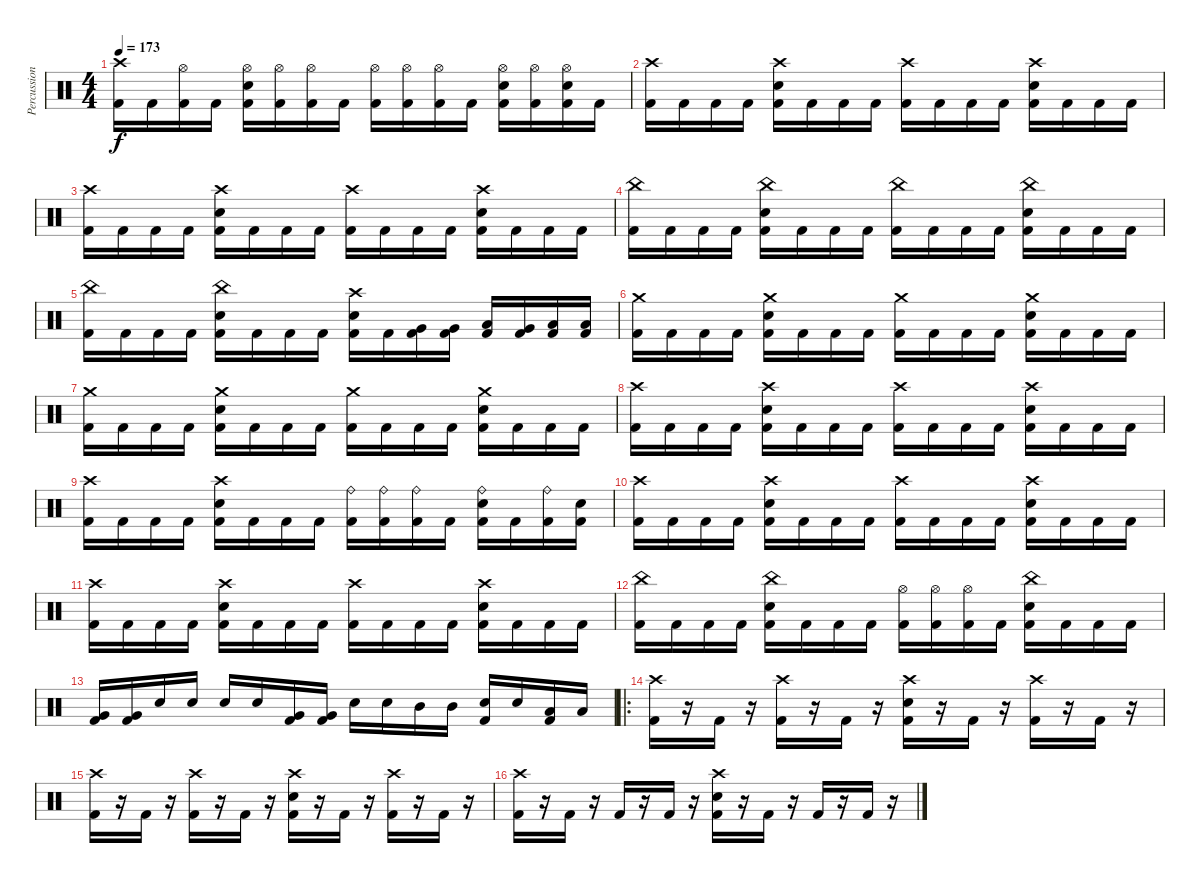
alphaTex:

\track ("Percussion" "Percussion") {instrument percussion}
\staff {score}
\articulation defaults
\ts (4 4)
\tempo 173
\clef neutral
\ks c
("Crash high (hit)" "Kick (hit) 2").16{dy f} "Kick (hit) 2".16 ("Hi-Hat (open)" "Kick (hit) 2").16 "Kick (hit) 2".16 ("Hi-Hat (open)" "Electric Snare (hit)" "Kick (hit) 2").16 ("Hi-Hat (open)" "Kick (hit) 2").16 ("Hi-Hat (open)" "Kick (hit) 2").16 "Kick (hit) 2".16 ("Hi-Hat (open)" "Kick (hit) 2").16 ("Hi-Hat (open)" "Kick (hit) 2").16 ("Hi-Hat (open)" "Kick (hit) 2").16 "Kick (hit) 2".16 ("Hi-Hat (open)" "Electric Snare (hit)" "Kick (hit) 2").16 ("Hi-Hat (open)" "Kick (hit) 2").16 ("Hi-Hat (open)" "Electric Snare (hit)" "Kick (hit) 2").16 "Kick (hit) 2".16 |
("Crash high (hit)" "Kick (hit) 2").16 "Kick (hit) 2".16 "Kick (hit) 2".16 "Kick (hit) 2".16 ("Crash high (hit)" "Electric Snare (hit)" "Kick (hit) 2").16 "Kick (hit) 2".16 "Kick (hit) 2".16 "Kick (hit) 2".16 ("Crash high (hit)" "Kick (hit) 2").16 "Kick (hit) 2".16 "Kick (hit) 2".16 "Kick (hit) 2".16 ("Crash high (hit)" "Electric Snare (hit)" "Kick (hit) 2").16 "Kick (hit) 2".16 "Kick (hit) 2".16 "Kick (hit) 2".16 |
("Crash high (hit)" "Kick (hit) 2").16 "Kick (hit) 2".16 "Kick (hit) 2".16 "Kick (hit) 2".16 ("Crash high (hit)" "Electric Snare (hit)" "Kick (hit) 2").16 "Kick (hit) 2".16 "Kick (hit) 2".16 "Kick (hit) 2".16 ("Crash high (hit)" "Kick (hit) 2").16 "Kick (hit) 2".16 "Kick (hit) 2".16 "Kick (hit) 2".16 ("Crash high (hit)" "Electric Snare (hit)" "Kick (hit) 2").16 "Kick (hit) 2".16 "Kick (hit) 2".16 "Kick (hit) 2".16 |
("China (hit)" "Kick (hit) 2").16 "Kick (hit) 2".16 "Kick (hit) 2".16 "Kick (hit) 2".16 ("China (hit)" "Electric Snare (hit)" "Kick (hit) 2").16 "Kick (hit) 2".16 "Kick (hit) 2".16 "Kick (hit) 2".16 ("China (hit)" "Kick (hit) 2").16 "Kick (hit) 2".16 "Kick (hit) 2".16 "Kick (hit) 2".16 ("China (hit)" "Electric Snare (hit)" "Kick (hit) 2").16 "Kick (hit) 2".16 "Kick (hit) 2".16 "Kick (hit) 2".16 |
("China (hit)" "Kick (hit) 2").16 "Kick (hit) 2".16 "Kick (hit) 2".16 "Kick (hit) 2".16 ("China (hit)" "Electric Snare (hit)" "Kick (hit) 2").16 "Kick (hit) 2".16 "Kick (hit) 2".16 "Kick (hit) 2".16 ("Crash high (hit)" "Electric Snare (hit)" "Kick (hit) 2").16 "Kick (hit) 2".16 ("Very Low Tom (hit)" "Kick (hit) 2").16 ("Very Low Tom (hit)" "Kick (hit) 2").16 ("Low Floor Tom (hit)" "Kick (hit) 2").16 ("Very Low Tom (hit)" "Kick (hit) 2").16 ("Low Floor Tom (hit)" "Kick (hit) 2").16 ("Low Floor Tom (hit)" "Kick (hit) 2").16 |
("Crash medium (hit)" "Kick (hit) 2").16 "Kick (hit) 2".16 "Kick (hit) 2".16 "Kick (hit) 2".16 ("Crash medium (hit)" "Electric Snare (hit)" "Kick (hit) 2").16 "Kick (hit) 2".16 "Kick (hit) 2".16 "Kick (hit) 2".16 ("Crash medium (hit)" "Kick (hit) 2").16 "Kick (hit) 2".16 "Kick (hit) 2".16 "Kick (hit) 2".16 ("Crash medium (hit)" "Electric Snare (hit)" "Kick (hit) 2").16 "Kick (hit) 2".16 "Kick (hit) 2".16 "Kick (hit) 2".16 |
("Crash medium (hit)" "Kick (hit) 2").16 "Kick (hit) 2".16 "Kick (hit) 2".16 "Kick (hit) 2".16 ("Crash medium (hit)" "Electric Snare (hit)" "Kick (hit) 2").16 "Kick (hit) 2".16 "Kick (hit) 2".16 "Kick (hit) 2".16 ("Crash medium (hit)" "Kick (hit) 2").16 "Kick (hit) 2".16 "Kick (hit) 2".16 "Kick (hit) 2".16 ("Crash medium (hit)" "Electric Snare (hit)" "Kick (hit) 2").16 "Kick (hit) 2".16 "Kick (hit) 2".16 "Kick (hit) 2".16 |
("Crash high (hit)" "Kick (hit) 2").16 "Kick (hit) 2".16 "Kick (hit) 2".16 "Kick (hit) 2".16 ("Crash high (hit)" "Electric Snare (hit)" "Kick (hit) 2").16 "Kick (hit) 2".16 "Kick (hit) 2".16 "Kick (hit) 2".16 ("Crash high (hit)" "Kick (hit) 2").16 "Kick (hit) 2".16 "Kick (hit) 2".16 "Kick (hit) 2".16 ("Crash high (hit)" "Electric Snare (hit)" "Kick (hit) 2").16 "Kick (hit) 2".16 "Kick (hit) 2".16 "Kick (hit) 2".16 |
("Crash high (hit)" "Kick (hit) 2").16 "Kick (hit) 2".16 "Kick (hit) 2".16 "Kick (hit) 2".16 ("Crash high (hit)" "Electric Snare (hit)" "Kick (hit) 2").16 "Kick (hit) 2".16 "Kick (hit) 2".16 "Kick (hit) 2".16 ("Ride (bell)" "Kick (hit) 2").16 ("Ride (bell)" "Kick (hit) 2").16 ("Ride (bell)" "Kick (hit) 2").16 "Kick (hit) 2".16 ("Ride (bell)" "Electric Snare (hit)" "Kick (hit) 2").16 "Kick (hit) 2".16 ("Ride (bell)" "Kick (hit) 2").16 ("Electric Snare (hit)" "Kick (hit) 2").16 |
("Crash high (hit)" "Kick (hit) 2").16 "Kick (hit) 2".16 "Kick (hit) 2".16 "Kick (hit) 2".16 ("Crash high (hit)" "Electric Snare (hit)" "Kick (hit) 2").16 "Kick (hit) 2".16 "Kick (hit) 2".16 "Kick (hit) 2".16 ("Crash high (hit)" "Kick (hit) 2").16 "Kick (hit) 2".16 "Kick (hit) 2".16 "Kick (hit) 2".16 ("Crash high (hit)" "Electric Snare (hit)" "Kick (hit) 2").16 "Kick (hit) 2".16 "Kick (hit) 2".16 "Kick (hit) 2".16 |
("Crash high (hit)" "Kick (hit) 2").16 "Kick (hit) 2".16 "Kick (hit) 2".16 "Kick (hit) 2".16 ("Crash high (hit)" "Electric Snare (hit)" "Kick (hit) 2").16 "Kick (hit) 2".16 "Kick (hit) 2".16 "Kick (hit) 2".16 ("Crash high (hit)" "Kick (hit) 2").16 "Kick (hit) 2".16 "Kick (hit) 2".16 "Kick (hit) 2".16 ("Crash high (hit)" "Electric Snare (hit)" "Kick (hit) 2").16 "Kick (hit) 2".16 "Kick (hit) 2".16 "Kick (hit) 2".16 |
("China (hit)" "Kick (hit) 2").16 "Kick (hit) 2".16 "Kick (hit) 2".16 "Kick (hit) 2".16 ("China (hit)" "Electric Snare (hit)" "Kick (hit) 2").16 "Kick (hit) 2".16 "Kick (hit) 2".16 "Kick (hit) 2".16 ("Hi-Hat (open)" "Kick (hit) 2").16 ("Hi-Hat (open)" "Kick (hit) 2").16 ("Hi-Hat (open)" "Kick (hit) 2").16 "Kick (hit) 2".16 ("China (hit)" "Electric Snare (hit)" "Kick (hit) 2").16 "Kick (hit) 2".16 "Kick (hit) 2".16 "Kick (hit) 2".16 |
("Very Low Tom (hit)" "Kick (hit) 2").16 ("Very Low Tom (hit)" "Kick (hit) 2").16 "Electric Snare (hit)".16 "Electric Snare (hit)".16 "Electric Snare (hit)".16 "Electric Snare (hit)".16 ("Very Low Tom (hit)" "Kick (hit) 2").16 ("Very Low Tom (hit)" "Kick (hit) 2").16 "Electric Snare (hit)".16 "Electric Snare (hit)".16 "Mid Tom (hit)".16 "Mid Tom (hit)".16 ("Electric Snare (hit)" "Kick (hit) 2").16 "Electric Snare (hit)".16 ("Low Floor Tom (hit)" "Kick (hit) 2").16 "Low Floor Tom (hit)".16 |
\ro
("Crash high (hit)" "Kick (hit) 2").16 r.16 "Kick (hit) 2".16 r.16 ("Crash high (hit)" "Kick (hit) 2").16 r.16 "Kick (hit) 2".16 r.16 ("Crash high (hit)" "Electric Snare (hit)" "Kick (hit) 2").16 r.16 "Kick (hit) 2".16 r.16 ("Crash high (hit)" "Kick (hit) 2").16 r.16 "Kick (hit) 2".16 r.16 |
("Crash high (hit)" "Kick (hit) 2").16 r.16 "Kick (hit) 2".16 r.16 ("Crash high (hit)" "Kick (hit) 2").16 r.16 "Kick (hit) 2".16 r.16 ("Crash high (hit)" "Electric Snare (hit)" "Kick (hit) 2").16 r.16 "Kick (hit) 2".16 r.16 ("Crash high (hit)" "Kick (hit) 2").16 r.16 "Kick (hit) 2".16 r.16 |
("Crash high (hit)" "Kick (hit) 2").16 r.16 "Kick (hit) 2".16 r.16 "Kick (hit) 2".16 r.16 "Kick (hit) 2".16 r.16 ("Crash high (hit)" "Electric Snare (hit)" "Kick (hit) 2").16 r.16 "Kick (hit) 2".16 r.16 "Kick (hit) 2".16 r.16 "Kick (hit) 2".16 r.16
